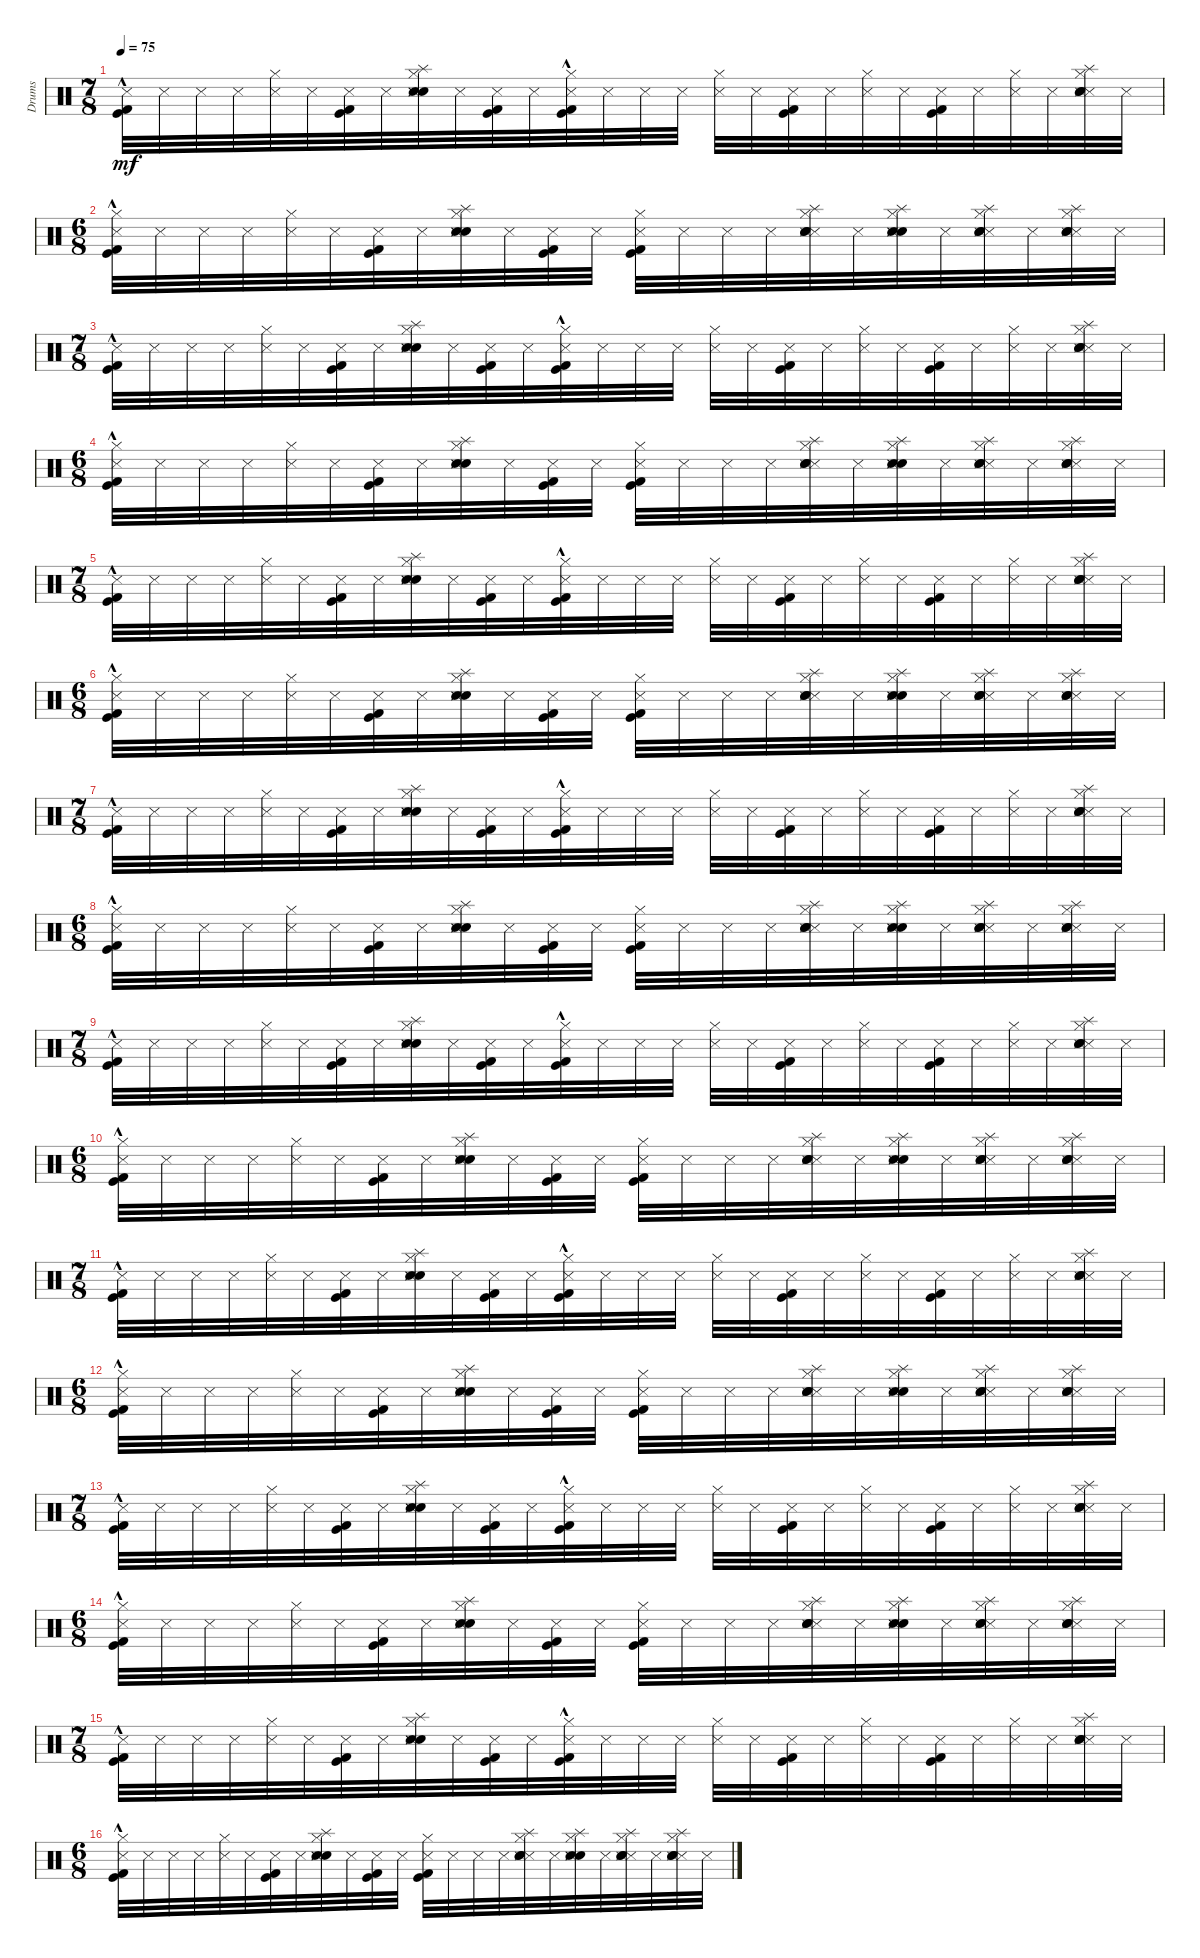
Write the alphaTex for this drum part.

\track ("Drums" "Drums") {instrument percussion}
\staff {score}
\articulation defaults
\ts (7 8)
\tempo 75
\clef neutral
\ks c
("Kick (hit)"{hac} "Kick (hit) 2"{hac} "Metronome (hit)").32{dy mf} "Metronome (hit)".32 "Metronome (hit)".32 "Metronome (hit)".32 ("Hi-Hat (closed)" "Metronome (hit)").32 "Metronome (hit)".32 ("Kick (hit)" "Kick (hit) 2" "Metronome (hit)").32 "Metronome (hit)".32 ("Hi-Hat (closed)" "Electric Snare (hit)" "Splash (hit)" "Metronome (hit)" "Snare (hit) 2" "Metronome (hit)").32 "Metronome (hit)".32 ("Kick (hit)" "Kick (hit) 2" "Metronome (hit)").32 "Metronome (hit)".32 ("Hi-Hat (closed)" "Kick (hit) 2"{hac} "Kick (hit)"{hac} "Metronome (hit)").32 "Metronome (hit)".32 "Metronome (hit)".32 "Metronome (hit)".32 ("Hi-Hat (closed)" "Metronome (hit)").32 "Metronome (hit)".32 ("Kick (hit)" "Kick (hit) 2" "Metronome (hit)").32 "Metronome (hit)".32 ("Hi-Hat (closed)" "Metronome (hit)").32 "Metronome (hit)".32 ("Kick (hit)" "Kick (hit) 2" "Metronome (hit)").32 "Metronome (hit)".32 ("Hi-Hat (closed)" "Metronome (hit)").32 "Metronome (hit)".32 ("Splash (hit)" "Hi-Hat (closed)" "Metronome (hit)" "Snare (hit) 2" "Electric Snare (hit)" "Metronome (hit)").32 "Metronome (hit)".32 |
\ts (6 8)
("Hi-Hat (closed)" "Kick (hit)"{hac} "Kick (hit) 2"{hac} "Metronome (hit)").32 "Metronome (hit)".32 "Metronome (hit)".32 "Metronome (hit)".32 ("Hi-Hat (closed)" "Metronome (hit)").32 "Metronome (hit)".32 ("Kick (hit)" "Kick (hit) 2" "Metronome (hit)").32 "Metronome (hit)".32 ("Hi-Hat (closed)" "Splash (hit)" "Snare (hit) 2" "Metronome (hit)" "Electric Snare (hit)" "Metronome (hit)").32 "Metronome (hit)".32 ("Kick (hit)" "Kick (hit) 2" "Metronome (hit)").32 "Metronome (hit)".32 ("Hi-Hat (closed)" "Kick (hit)" "Kick (hit) 2" "Metronome (hit)").32 "Metronome (hit)".32 "Metronome (hit)".32 "Metronome (hit)".32 ("Splash (hit)" "Metronome (hit)" "Electric Snare (hit)" "Hi-Hat (closed)" "Snare (hit) 2" "Metronome (hit)").32 "Metronome (hit)".32 ("Splash (hit)" "Electric Snare (hit)" "Snare (hit) 2" "Metronome (hit)" "Hi-Hat (closed)" "Metronome (hit)").32 "Metronome (hit)".32 ("Splash (hit)" "Metronome (hit)" "Snare (hit) 2" "Electric Snare (hit)" "Hi-Hat (closed)" "Metronome (hit)").32 "Metronome (hit)".32 ("Splash (hit)" "Metronome (hit)" "Snare (hit) 2" "Electric Snare (hit)" "Hi-Hat (closed)" "Metronome (hit)").32 "Metronome (hit)".32 |
\ts (7 8)
("Kick (hit)"{hac} "Kick (hit) 2"{hac} "Metronome (hit)").32 "Metronome (hit)".32 "Metronome (hit)".32 "Metronome (hit)".32 ("Hi-Hat (closed)" "Metronome (hit)").32 "Metronome (hit)".32 ("Kick (hit)" "Kick (hit) 2" "Metronome (hit)").32 "Metronome (hit)".32 ("Hi-Hat (closed)" "Electric Snare (hit)" "Splash (hit)" "Metronome (hit)" "Snare (hit) 2" "Metronome (hit)").32 "Metronome (hit)".32 ("Kick (hit)" "Kick (hit) 2" "Metronome (hit)").32 "Metronome (hit)".32 ("Hi-Hat (closed)" "Kick (hit) 2"{hac} "Kick (hit)"{hac} "Metronome (hit)").32 "Metronome (hit)".32 "Metronome (hit)".32 "Metronome (hit)".32 ("Hi-Hat (closed)" "Metronome (hit)").32 "Metronome (hit)".32 ("Kick (hit)" "Kick (hit) 2" "Metronome (hit)").32 "Metronome (hit)".32 ("Hi-Hat (closed)" "Metronome (hit)").32 "Metronome (hit)".32 ("Kick (hit)" "Kick (hit) 2" "Metronome (hit)").32 "Metronome (hit)".32 ("Hi-Hat (closed)" "Metronome (hit)").32 "Metronome (hit)".32 ("Splash (hit)" "Hi-Hat (closed)" "Metronome (hit)" "Snare (hit) 2" "Electric Snare (hit)" "Metronome (hit)").32 "Metronome (hit)".32 |
\ts (6 8)
("Hi-Hat (closed)" "Kick (hit)"{hac} "Kick (hit) 2"{hac} "Metronome (hit)").32 "Metronome (hit)".32 "Metronome (hit)".32 "Metronome (hit)".32 ("Hi-Hat (closed)" "Metronome (hit)").32 "Metronome (hit)".32 ("Kick (hit)" "Kick (hit) 2" "Metronome (hit)").32 "Metronome (hit)".32 ("Hi-Hat (closed)" "Splash (hit)" "Snare (hit) 2" "Metronome (hit)" "Electric Snare (hit)" "Metronome (hit)").32 "Metronome (hit)".32 ("Kick (hit)" "Kick (hit) 2" "Metronome (hit)").32 "Metronome (hit)".32 ("Hi-Hat (closed)" "Kick (hit)" "Kick (hit) 2" "Metronome (hit)").32 "Metronome (hit)".32 "Metronome (hit)".32 "Metronome (hit)".32 ("Splash (hit)" "Metronome (hit)" "Electric Snare (hit)" "Hi-Hat (closed)" "Snare (hit) 2" "Metronome (hit)").32 "Metronome (hit)".32 ("Splash (hit)" "Electric Snare (hit)" "Snare (hit) 2" "Metronome (hit)" "Hi-Hat (closed)" "Metronome (hit)").32 "Metronome (hit)".32 ("Splash (hit)" "Metronome (hit)" "Snare (hit) 2" "Electric Snare (hit)" "Hi-Hat (closed)" "Metronome (hit)").32 "Metronome (hit)".32 ("Splash (hit)" "Metronome (hit)" "Snare (hit) 2" "Electric Snare (hit)" "Hi-Hat (closed)" "Metronome (hit)").32 "Metronome (hit)".32 |
\ts (7 8)
("Kick (hit)"{hac} "Kick (hit) 2"{hac} "Metronome (hit)").32 "Metronome (hit)".32 "Metronome (hit)".32 "Metronome (hit)".32 ("Hi-Hat (closed)" "Metronome (hit)").32 "Metronome (hit)".32 ("Kick (hit)" "Kick (hit) 2" "Metronome (hit)").32 "Metronome (hit)".32 ("Hi-Hat (closed)" "Electric Snare (hit)" "Splash (hit)" "Metronome (hit)" "Snare (hit) 2" "Metronome (hit)").32 "Metronome (hit)".32 ("Kick (hit)" "Kick (hit) 2" "Metronome (hit)").32 "Metronome (hit)".32 ("Hi-Hat (closed)" "Kick (hit) 2"{hac} "Kick (hit)"{hac} "Metronome (hit)").32 "Metronome (hit)".32 "Metronome (hit)".32 "Metronome (hit)".32 ("Hi-Hat (closed)" "Metronome (hit)").32 "Metronome (hit)".32 ("Kick (hit)" "Kick (hit) 2" "Metronome (hit)").32 "Metronome (hit)".32 ("Hi-Hat (closed)" "Metronome (hit)").32 "Metronome (hit)".32 ("Kick (hit)" "Kick (hit) 2" "Metronome (hit)").32 "Metronome (hit)".32 ("Hi-Hat (closed)" "Metronome (hit)").32 "Metronome (hit)".32 ("Splash (hit)" "Hi-Hat (closed)" "Metronome (hit)" "Snare (hit) 2" "Electric Snare (hit)" "Metronome (hit)").32 "Metronome (hit)".32 |
\ts (6 8)
("Hi-Hat (closed)" "Kick (hit)"{hac} "Kick (hit) 2"{hac} "Metronome (hit)").32 "Metronome (hit)".32 "Metronome (hit)".32 "Metronome (hit)".32 ("Hi-Hat (closed)" "Metronome (hit)").32 "Metronome (hit)".32 ("Kick (hit)" "Kick (hit) 2" "Metronome (hit)").32 "Metronome (hit)".32 ("Hi-Hat (closed)" "Splash (hit)" "Snare (hit) 2" "Metronome (hit)" "Electric Snare (hit)" "Metronome (hit)").32 "Metronome (hit)".32 ("Kick (hit)" "Kick (hit) 2" "Metronome (hit)").32 "Metronome (hit)".32 ("Hi-Hat (closed)" "Kick (hit)" "Kick (hit) 2" "Metronome (hit)").32 "Metronome (hit)".32 "Metronome (hit)".32 "Metronome (hit)".32 ("Splash (hit)" "Metronome (hit)" "Electric Snare (hit)" "Hi-Hat (closed)" "Snare (hit) 2" "Metronome (hit)").32 "Metronome (hit)".32 ("Splash (hit)" "Electric Snare (hit)" "Snare (hit) 2" "Metronome (hit)" "Hi-Hat (closed)" "Metronome (hit)").32 "Metronome (hit)".32 ("Splash (hit)" "Metronome (hit)" "Snare (hit) 2" "Electric Snare (hit)" "Hi-Hat (closed)" "Metronome (hit)").32 "Metronome (hit)".32 ("Splash (hit)" "Metronome (hit)" "Snare (hit) 2" "Electric Snare (hit)" "Hi-Hat (closed)" "Metronome (hit)").32 "Metronome (hit)".32 |
\ts (7 8)
("Kick (hit)"{hac} "Kick (hit) 2"{hac} "Metronome (hit)").32 "Metronome (hit)".32 "Metronome (hit)".32 "Metronome (hit)".32 ("Hi-Hat (closed)" "Metronome (hit)").32 "Metronome (hit)".32 ("Kick (hit)" "Kick (hit) 2" "Metronome (hit)").32 "Metronome (hit)".32 ("Hi-Hat (closed)" "Electric Snare (hit)" "Splash (hit)" "Metronome (hit)" "Snare (hit) 2" "Metronome (hit)").32 "Metronome (hit)".32 ("Kick (hit)" "Kick (hit) 2" "Metronome (hit)").32 "Metronome (hit)".32 ("Hi-Hat (closed)" "Kick (hit) 2"{hac} "Kick (hit)"{hac} "Metronome (hit)").32 "Metronome (hit)".32 "Metronome (hit)".32 "Metronome (hit)".32 ("Hi-Hat (closed)" "Metronome (hit)").32 "Metronome (hit)".32 ("Kick (hit)" "Kick (hit) 2" "Metronome (hit)").32 "Metronome (hit)".32 ("Hi-Hat (closed)" "Metronome (hit)").32 "Metronome (hit)".32 ("Kick (hit)" "Kick (hit) 2" "Metronome (hit)").32 "Metronome (hit)".32 ("Hi-Hat (closed)" "Metronome (hit)").32 "Metronome (hit)".32 ("Splash (hit)" "Hi-Hat (closed)" "Metronome (hit)" "Snare (hit) 2" "Electric Snare (hit)" "Metronome (hit)").32 "Metronome (hit)".32 |
\ts (6 8)
("Hi-Hat (closed)" "Kick (hit)"{hac} "Kick (hit) 2"{hac} "Metronome (hit)").32 "Metronome (hit)".32 "Metronome (hit)".32 "Metronome (hit)".32 ("Hi-Hat (closed)" "Metronome (hit)").32 "Metronome (hit)".32 ("Kick (hit)" "Kick (hit) 2" "Metronome (hit)").32 "Metronome (hit)".32 ("Hi-Hat (closed)" "Splash (hit)" "Snare (hit) 2" "Metronome (hit)" "Electric Snare (hit)" "Metronome (hit)").32 "Metronome (hit)".32 ("Kick (hit)" "Kick (hit) 2" "Metronome (hit)").32 "Metronome (hit)".32 ("Hi-Hat (closed)" "Kick (hit)" "Kick (hit) 2" "Metronome (hit)").32 "Metronome (hit)".32 "Metronome (hit)".32 "Metronome (hit)".32 ("Splash (hit)" "Metronome (hit)" "Electric Snare (hit)" "Hi-Hat (closed)" "Snare (hit) 2" "Metronome (hit)").32 "Metronome (hit)".32 ("Splash (hit)" "Electric Snare (hit)" "Snare (hit) 2" "Metronome (hit)" "Hi-Hat (closed)" "Metronome (hit)").32 "Metronome (hit)".32 ("Splash (hit)" "Metronome (hit)" "Snare (hit) 2" "Electric Snare (hit)" "Hi-Hat (closed)" "Metronome (hit)").32 "Metronome (hit)".32 ("Splash (hit)" "Metronome (hit)" "Snare (hit) 2" "Electric Snare (hit)" "Hi-Hat (closed)" "Metronome (hit)").32 "Metronome (hit)".32 |
\ts (7 8)
("Kick (hit)"{hac} "Kick (hit) 2"{hac} "Metronome (hit)").32 "Metronome (hit)".32 "Metronome (hit)".32 "Metronome (hit)".32 ("Hi-Hat (closed)" "Metronome (hit)").32 "Metronome (hit)".32 ("Kick (hit)" "Kick (hit) 2" "Metronome (hit)").32 "Metronome (hit)".32 ("Hi-Hat (closed)" "Electric Snare (hit)" "Splash (hit)" "Metronome (hit)" "Snare (hit) 2" "Metronome (hit)").32 "Metronome (hit)".32 ("Kick (hit)" "Kick (hit) 2" "Metronome (hit)").32 "Metronome (hit)".32 ("Hi-Hat (closed)" "Kick (hit) 2"{hac} "Kick (hit)"{hac} "Metronome (hit)").32 "Metronome (hit)".32 "Metronome (hit)".32 "Metronome (hit)".32 ("Hi-Hat (closed)" "Metronome (hit)").32 "Metronome (hit)".32 ("Kick (hit)" "Kick (hit) 2" "Metronome (hit)").32 "Metronome (hit)".32 ("Hi-Hat (closed)" "Metronome (hit)").32 "Metronome (hit)".32 ("Kick (hit)" "Kick (hit) 2" "Metronome (hit)").32 "Metronome (hit)".32 ("Hi-Hat (closed)" "Metronome (hit)").32 "Metronome (hit)".32 ("Splash (hit)" "Hi-Hat (closed)" "Metronome (hit)" "Snare (hit) 2" "Electric Snare (hit)" "Metronome (hit)").32 "Metronome (hit)".32 |
\ts (6 8)
("Hi-Hat (closed)" "Kick (hit)"{hac} "Kick (hit) 2"{hac} "Metronome (hit)").32 "Metronome (hit)".32 "Metronome (hit)".32 "Metronome (hit)".32 ("Hi-Hat (closed)" "Metronome (hit)").32 "Metronome (hit)".32 ("Kick (hit)" "Kick (hit) 2" "Metronome (hit)").32 "Metronome (hit)".32 ("Hi-Hat (closed)" "Splash (hit)" "Snare (hit) 2" "Metronome (hit)" "Electric Snare (hit)" "Metronome (hit)").32 "Metronome (hit)".32 ("Kick (hit)" "Kick (hit) 2" "Metronome (hit)").32 "Metronome (hit)".32 ("Hi-Hat (closed)" "Kick (hit)" "Kick (hit) 2" "Metronome (hit)").32 "Metronome (hit)".32 "Metronome (hit)".32 "Metronome (hit)".32 ("Splash (hit)" "Metronome (hit)" "Electric Snare (hit)" "Hi-Hat (closed)" "Snare (hit) 2" "Metronome (hit)").32 "Metronome (hit)".32 ("Splash (hit)" "Electric Snare (hit)" "Snare (hit) 2" "Metronome (hit)" "Hi-Hat (closed)" "Metronome (hit)").32 "Metronome (hit)".32 ("Splash (hit)" "Metronome (hit)" "Snare (hit) 2" "Electric Snare (hit)" "Hi-Hat (closed)" "Metronome (hit)").32 "Metronome (hit)".32 ("Splash (hit)" "Metronome (hit)" "Snare (hit) 2" "Electric Snare (hit)" "Hi-Hat (closed)" "Metronome (hit)").32 "Metronome (hit)".32 |
\ts (7 8)
("Kick (hit)"{hac} "Kick (hit) 2"{hac} "Metronome (hit)").32 "Metronome (hit)".32 "Metronome (hit)".32 "Metronome (hit)".32 ("Hi-Hat (closed)" "Metronome (hit)").32 "Metronome (hit)".32 ("Kick (hit)" "Kick (hit) 2" "Metronome (hit)").32 "Metronome (hit)".32 ("Hi-Hat (closed)" "Electric Snare (hit)" "Splash (hit)" "Metronome (hit)" "Snare (hit) 2" "Metronome (hit)").32 "Metronome (hit)".32 ("Kick (hit)" "Kick (hit) 2" "Metronome (hit)").32 "Metronome (hit)".32 ("Hi-Hat (closed)" "Kick (hit) 2"{hac} "Kick (hit)"{hac} "Metronome (hit)").32 "Metronome (hit)".32 "Metronome (hit)".32 "Metronome (hit)".32 ("Hi-Hat (closed)" "Metronome (hit)").32 "Metronome (hit)".32 ("Kick (hit)" "Kick (hit) 2" "Metronome (hit)").32 "Metronome (hit)".32 ("Hi-Hat (closed)" "Metronome (hit)").32 "Metronome (hit)".32 ("Kick (hit)" "Kick (hit) 2" "Metronome (hit)").32 "Metronome (hit)".32 ("Hi-Hat (closed)" "Metronome (hit)").32 "Metronome (hit)".32 ("Splash (hit)" "Hi-Hat (closed)" "Metronome (hit)" "Snare (hit) 2" "Electric Snare (hit)" "Metronome (hit)").32 "Metronome (hit)".32 |
\ts (6 8)
("Hi-Hat (closed)" "Kick (hit)"{hac} "Kick (hit) 2"{hac} "Metronome (hit)").32 "Metronome (hit)".32 "Metronome (hit)".32 "Metronome (hit)".32 ("Hi-Hat (closed)" "Metronome (hit)").32 "Metronome (hit)".32 ("Kick (hit)" "Kick (hit) 2" "Metronome (hit)").32 "Metronome (hit)".32 ("Hi-Hat (closed)" "Splash (hit)" "Snare (hit) 2" "Metronome (hit)" "Electric Snare (hit)" "Metronome (hit)").32 "Metronome (hit)".32 ("Kick (hit)" "Kick (hit) 2" "Metronome (hit)").32 "Metronome (hit)".32 ("Hi-Hat (closed)" "Kick (hit)" "Kick (hit) 2" "Metronome (hit)").32 "Metronome (hit)".32 "Metronome (hit)".32 "Metronome (hit)".32 ("Splash (hit)" "Metronome (hit)" "Electric Snare (hit)" "Hi-Hat (closed)" "Snare (hit) 2" "Metronome (hit)").32 "Metronome (hit)".32 ("Splash (hit)" "Electric Snare (hit)" "Snare (hit) 2" "Metronome (hit)" "Hi-Hat (closed)" "Metronome (hit)").32 "Metronome (hit)".32 ("Splash (hit)" "Metronome (hit)" "Snare (hit) 2" "Electric Snare (hit)" "Hi-Hat (closed)" "Metronome (hit)").32 "Metronome (hit)".32 ("Splash (hit)" "Metronome (hit)" "Snare (hit) 2" "Electric Snare (hit)" "Hi-Hat (closed)" "Metronome (hit)").32 "Metronome (hit)".32 |
\ts (7 8)
("Kick (hit)"{hac} "Kick (hit) 2"{hac} "Metronome (hit)").32 "Metronome (hit)".32 "Metronome (hit)".32 "Metronome (hit)".32 ("Hi-Hat (closed)" "Metronome (hit)").32 "Metronome (hit)".32 ("Kick (hit)" "Kick (hit) 2" "Metronome (hit)").32 "Metronome (hit)".32 ("Hi-Hat (closed)" "Electric Snare (hit)" "Splash (hit)" "Metronome (hit)" "Snare (hit) 2" "Metronome (hit)").32 "Metronome (hit)".32 ("Kick (hit)" "Kick (hit) 2" "Metronome (hit)").32 "Metronome (hit)".32 ("Hi-Hat (closed)" "Kick (hit) 2"{hac} "Kick (hit)"{hac} "Metronome (hit)").32 "Metronome (hit)".32 "Metronome (hit)".32 "Metronome (hit)".32 ("Hi-Hat (closed)" "Metronome (hit)").32 "Metronome (hit)".32 ("Kick (hit)" "Kick (hit) 2" "Metronome (hit)").32 "Metronome (hit)".32 ("Hi-Hat (closed)" "Metronome (hit)").32 "Metronome (hit)".32 ("Kick (hit)" "Kick (hit) 2" "Metronome (hit)").32 "Metronome (hit)".32 ("Hi-Hat (closed)" "Metronome (hit)").32 "Metronome (hit)".32 ("Splash (hit)" "Hi-Hat (closed)" "Metronome (hit)" "Snare (hit) 2" "Electric Snare (hit)" "Metronome (hit)").32 "Metronome (hit)".32 |
\ts (6 8)
("Hi-Hat (closed)" "Kick (hit)"{hac} "Kick (hit) 2"{hac} "Metronome (hit)").32 "Metronome (hit)".32 "Metronome (hit)".32 "Metronome (hit)".32 ("Hi-Hat (closed)" "Metronome (hit)").32 "Metronome (hit)".32 ("Kick (hit)" "Kick (hit) 2" "Metronome (hit)").32 "Metronome (hit)".32 ("Hi-Hat (closed)" "Splash (hit)" "Snare (hit) 2" "Metronome (hit)" "Electric Snare (hit)" "Metronome (hit)").32 "Metronome (hit)".32 ("Kick (hit)" "Kick (hit) 2" "Metronome (hit)").32 "Metronome (hit)".32 ("Hi-Hat (closed)" "Kick (hit)" "Kick (hit) 2" "Metronome (hit)").32 "Metronome (hit)".32 "Metronome (hit)".32 "Metronome (hit)".32 ("Splash (hit)" "Metronome (hit)" "Electric Snare (hit)" "Hi-Hat (closed)" "Snare (hit) 2" "Metronome (hit)").32 "Metronome (hit)".32 ("Splash (hit)" "Electric Snare (hit)" "Snare (hit) 2" "Metronome (hit)" "Hi-Hat (closed)" "Metronome (hit)").32 "Metronome (hit)".32 ("Splash (hit)" "Metronome (hit)" "Snare (hit) 2" "Electric Snare (hit)" "Hi-Hat (closed)" "Metronome (hit)").32 "Metronome (hit)".32 ("Splash (hit)" "Metronome (hit)" "Snare (hit) 2" "Electric Snare (hit)" "Hi-Hat (closed)" "Metronome (hit)").32 "Metronome (hit)".32 |
\ts (7 8)
("Kick (hit)"{hac} "Kick (hit) 2"{hac} "Metronome (hit)").32 "Metronome (hit)".32 "Metronome (hit)".32 "Metronome (hit)".32 ("Hi-Hat (closed)" "Metronome (hit)").32 "Metronome (hit)".32 ("Kick (hit)" "Kick (hit) 2" "Metronome (hit)").32 "Metronome (hit)".32 ("Hi-Hat (closed)" "Electric Snare (hit)" "Splash (hit)" "Metronome (hit)" "Snare (hit) 2" "Metronome (hit)").32 "Metronome (hit)".32 ("Kick (hit)" "Kick (hit) 2" "Metronome (hit)").32 "Metronome (hit)".32 ("Hi-Hat (closed)" "Kick (hit) 2"{hac} "Kick (hit)"{hac} "Metronome (hit)").32 "Metronome (hit)".32 "Metronome (hit)".32 "Metronome (hit)".32 ("Hi-Hat (closed)" "Metronome (hit)").32 "Metronome (hit)".32 ("Kick (hit)" "Kick (hit) 2" "Metronome (hit)").32 "Metronome (hit)".32 ("Hi-Hat (closed)" "Metronome (hit)").32 "Metronome (hit)".32 ("Kick (hit)" "Kick (hit) 2" "Metronome (hit)").32 "Metronome (hit)".32 ("Hi-Hat (closed)" "Metronome (hit)").32 "Metronome (hit)".32 ("Splash (hit)" "Hi-Hat (closed)" "Metronome (hit)" "Snare (hit) 2" "Electric Snare (hit)" "Metronome (hit)").32 "Metronome (hit)".32 |
\ts (6 8)
("Hi-Hat (closed)" "Kick (hit)"{hac} "Kick (hit) 2"{hac} "Metronome (hit)").32 "Metronome (hit)".32 "Metronome (hit)".32 "Metronome (hit)".32 ("Hi-Hat (closed)" "Metronome (hit)").32 "Metronome (hit)".32 ("Kick (hit)" "Kick (hit) 2" "Metronome (hit)").32 "Metronome (hit)".32 ("Hi-Hat (closed)" "Splash (hit)" "Snare (hit) 2" "Metronome (hit)" "Electric Snare (hit)" "Metronome (hit)").32 "Metronome (hit)".32 ("Kick (hit)" "Kick (hit) 2" "Metronome (hit)").32 "Metronome (hit)".32 ("Hi-Hat (closed)" "Kick (hit)" "Kick (hit) 2" "Metronome (hit)").32 "Metronome (hit)".32 "Metronome (hit)".32 "Metronome (hit)".32 ("Splash (hit)" "Metronome (hit)" "Electric Snare (hit)" "Hi-Hat (closed)" "Snare (hit) 2" "Metronome (hit)").32 "Metronome (hit)".32 ("Splash (hit)" "Electric Snare (hit)" "Snare (hit) 2" "Metronome (hit)" "Hi-Hat (closed)" "Metronome (hit)").32 "Metronome (hit)".32 ("Splash (hit)" "Metronome (hit)" "Snare (hit) 2" "Electric Snare (hit)" "Hi-Hat (closed)" "Metronome (hit)").32 "Metronome (hit)".32 ("Splash (hit)" "Metronome (hit)" "Snare (hit) 2" "Electric Snare (hit)" "Hi-Hat (closed)" "Metronome (hit)").32 "Metronome (hit)".32
